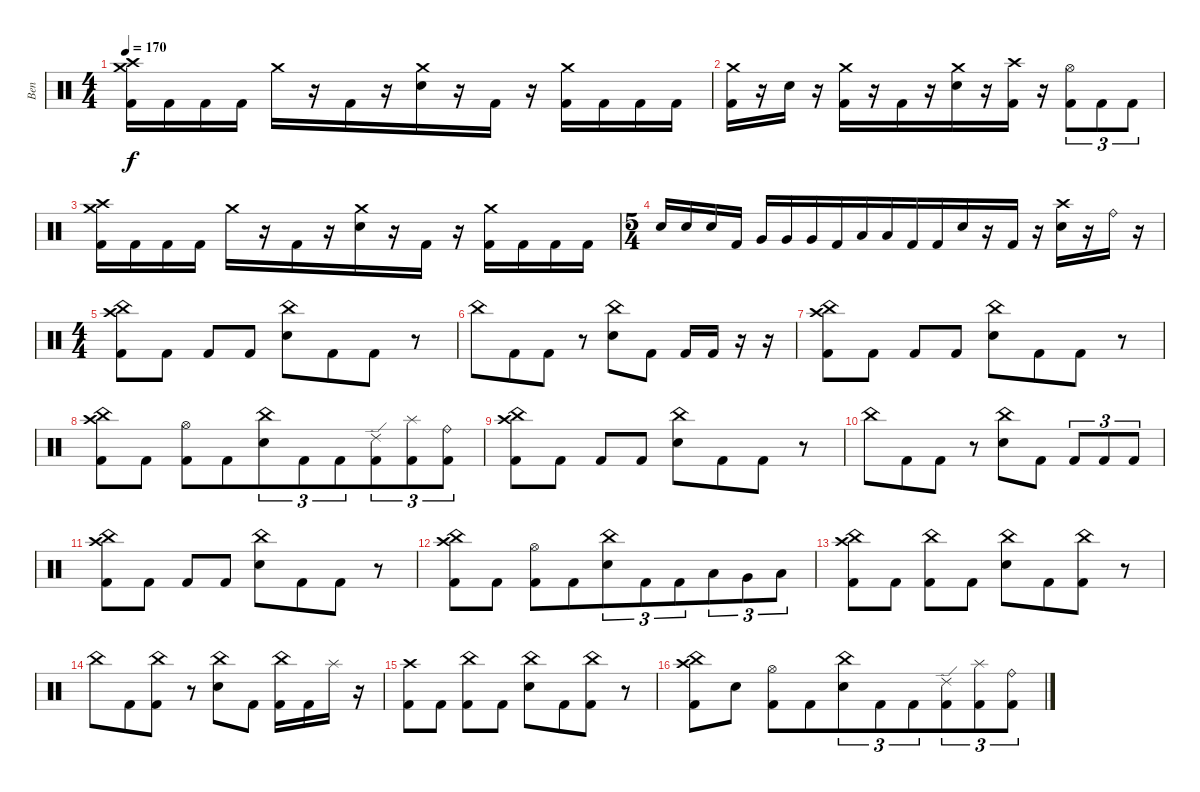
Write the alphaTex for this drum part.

\track ("Ben" "Ben") {instrument percussion}
\staff {score}
\articulation defaults
\ts (4 4)
\tempo 170
\clef neutral
\ks c
("Kick (hit) 2" "Crash medium (hit)" "Crash high (hit)").16{dy f} "Kick (hit) 2".16{beam merge} "Kick (hit) 2".16 "Kick (hit) 2".16 "Crash medium (hit)".16{beam merge} r.16 "Kick (hit) 2".16{beam merge} r.16 ("Electric Snare (hit)" "Crash medium (hit)").16 r.16 "Kick (hit) 2".16 r.16 ("Kick (hit) 2" "Crash medium (hit)").16{beam merge} "Kick (hit) 2".16{beam merge} "Kick (hit) 2".16 "Kick (hit) 2".16 |
("Kick (hit) 2" "Crash medium (hit)").16 r.16{beam merge} "Electric Snare (hit)".16 r.16 ("Crash medium (hit)" "Kick (hit) 2").16{beam merge} r.16 "Kick (hit) 2".16{beam merge} r.16 ("Electric Snare (hit)" "Crash medium (hit)").16 r.16 ("Kick (hit) 2" "Crash high (hit)").16 r.16 ("Kick (hit) 2" "Hi-Hat (open)").8{tu (3 2) beam merge} "Kick (hit) 2".8{tu (3 2) beam merge} "Kick (hit) 2".8{tu (3 2)} |
("Kick (hit) 2" "Crash medium (hit)" "Crash high (hit)").16 "Kick (hit) 2".16{beam merge} "Kick (hit) 2".16 "Kick (hit) 2".16 "Crash medium (hit)".16{beam merge} r.16 "Kick (hit) 2".16{beam merge} r.16 ("Electric Snare (hit)" "Crash medium (hit)").16 r.16 "Kick (hit) 2".16 r.16 ("Kick (hit) 2" "Crash medium (hit)").16{beam merge} "Kick (hit) 2".16{beam merge} "Kick (hit) 2".16 "Kick (hit) 2".16 |
\ts (5 4)
"Electric Snare (hit)".16{beam merge} "Electric Snare (hit)".16 "Electric Snare (hit)".16{beam merge} "Kick (hit) 2".16 "Very Low Tom (hit)".16{beam merge} "Very Low Tom (hit)".16 "Very Low Tom (hit)".16 "Kick (hit) 2".16{beam merge} "Low Floor Tom (hit)".16 "Low Floor Tom (hit)".16 "Kick (hit) 2".16{beam merge} "Kick (hit) 2".16{beam merge} "Electric Snare (hit)".16{beam merge} r.16{beam merge} "Kick (hit) 2".16 r.16{beam merge} ("Crash high (hit)" "Electric Snare (hit)").16 r.16{beam merge} "Ride (bell)".16 r.16 |
\ts (4 4)
("China (hit)" "Kick (hit) 2" "Crash high (hit)").8 "Kick (hit) 2".8 "Kick (hit) 2".8 "Kick (hit) 2".8 ("Electric Snare (hit)" "China (hit)").8 "Kick (hit) 2".8{beam merge} "Kick (hit) 2".8{beam merge} r.8 |
"China (hit)".8 "Kick (hit) 2".8{beam merge} "Kick (hit) 2".8 r.8 ("China (hit)" "Electric Snare (hit)").8{beam merge} "Kick (hit) 2".8 "Kick (hit) 2".16{beam merge} "Kick (hit) 2".16{beam merge} r.16{beam merge} r.16 |
("China (hit)" "Kick (hit) 2" "Crash high (hit)").8 "Kick (hit) 2".8 "Kick (hit) 2".8 "Kick (hit) 2".8 ("Electric Snare (hit)" "China (hit)").8 "Kick (hit) 2".8{beam merge} "Kick (hit) 2".8{beam merge} r.8 |
("China (hit)" "Kick (hit) 2" "Crash high (hit)").8 "Kick (hit) 2".8 ("Hi-Hat (open)" "Kick (hit) 2").8 "Kick (hit) 2".8{beam merge} ("Electric Snare (hit)" "China (hit)").8{tu (3 2) beam merge} "Kick (hit) 2".8{tu (3 2)} "Kick (hit) 2".8{tu (3 2) beam merge} ("Kick (hit) 2" "Ride (edge) 2").8{tu (3 2) beam merge} ("Kick (hit) 2" "Splash (hit)").8{tu (3 2) beam merge} ("Kick (hit) 2" "Ride (bell)").8{tu (3 2)} |
("China (hit)" "Kick (hit) 2" "Crash high (hit)").8 "Kick (hit) 2".8 "Kick (hit) 2".8 "Kick (hit) 2".8 ("Electric Snare (hit)" "China (hit)").8 "Kick (hit) 2".8{beam merge} "Kick (hit) 2".8{beam merge} r.8 |
"China (hit)".8 "Kick (hit) 2".8{beam merge} "Kick (hit) 2".8 r.8 ("China (hit)" "Electric Snare (hit)").8{beam merge} "Kick (hit) 2".8 "Kick (hit) 2".8{tu (3 2) beam merge} "Kick (hit) 2".8{tu (3 2) beam merge} "Kick (hit) 2".8{tu (3 2)} |
("China (hit)" "Kick (hit) 2" "Crash high (hit)").8 "Kick (hit) 2".8 "Kick (hit) 2".8 "Kick (hit) 2".8 ("Electric Snare (hit)" "China (hit)").8 "Kick (hit) 2".8{beam merge} "Kick (hit) 2".8{beam merge} r.8 |
("China (hit)" "Kick (hit) 2" "Crash high (hit)").8 "Kick (hit) 2".8 ("Hi-Hat (open)" "Kick (hit) 2").8 "Kick (hit) 2".8{beam merge} ("Electric Snare (hit)" "China (hit)").8{tu (3 2) beam merge} "Kick (hit) 2".8{tu (3 2)} "Kick (hit) 2".8{tu (3 2) beam merge} "Low Tom (hit)".8{tu (3 2) beam merge} "Very Low Tom (hit)".8{tu (3 2) beam merge} "Low Floor Tom (hit)".8{tu (3 2)} |
("China (hit)" "Kick (hit) 2" "Crash high (hit)").8 "Kick (hit) 2".8 ("Kick (hit) 2" "China (hit)").8 "Kick (hit) 2".8 ("Electric Snare (hit)" "China (hit)").8 "Kick (hit) 2".8{beam merge} ("Kick (hit) 2" "China (hit)").8{beam merge} r.8 |
"China (hit)".8 "Kick (hit) 2".8{beam merge} ("China (hit)" "Kick (hit) 2").8 r.8 ("China (hit)" "Electric Snare (hit)").8{beam merge} "Kick (hit) 2".8 ("China (hit)" "Kick (hit) 2").16{beam merge} "Kick (hit) 2".16{beam merge} "Splash (hit)".16 r.16 |
("Kick (hit) 2" "Crash high (hit)").8 "Kick (hit) 2".8 ("Kick (hit) 2" "China (hit)").8 "Kick (hit) 2".8 ("Electric Snare (hit)" "China (hit)").8 "Kick (hit) 2".8{beam merge} ("Kick (hit) 2" "China (hit)").8{beam merge} r.8 |
("China (hit)" "Kick (hit) 2" "Crash high (hit)").8 "Electric Snare (hit)".8 ("Hi-Hat (open)" "Kick (hit) 2").8 "Kick (hit) 2".8{beam merge} ("Electric Snare (hit)" "China (hit)").8{tu (3 2) beam merge} "Kick (hit) 2".8{tu (3 2)} "Kick (hit) 2".8{tu (3 2) beam merge} ("Kick (hit) 2" "Ride (edge) 2").8{tu (3 2) beam merge} ("Kick (hit) 2" "Splash (hit)").8{tu (3 2) beam merge} ("Kick (hit) 2" "Ride (bell)").8{tu (3 2)}
